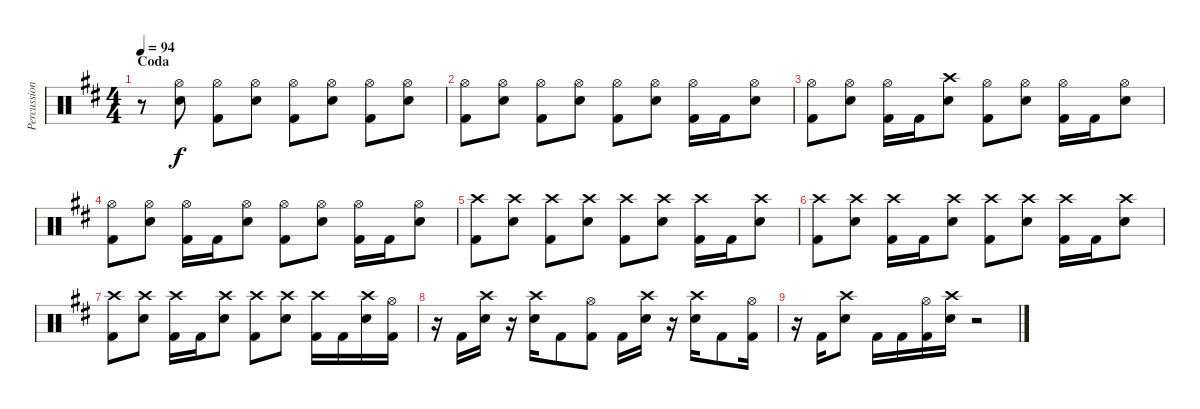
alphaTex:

\track ("Percussion" "Percussion") {instrument percussion}
\staff {score}
\articulation defaults
\ts (4 4)
\section ("" "Coda")
\tempo 94
\clef neutral
\ks bminor
r.8{dy f} ("Hi-Hat (open)" "Electric Snare (hit)").8 ("Hi-Hat (open)" "Kick (hit) 2").8 ("Hi-Hat (open)" "Electric Snare (hit)").8 ("Hi-Hat (open)" "Kick (hit) 2").8 ("Hi-Hat (open)" "Electric Snare (hit)").8 ("Hi-Hat (open)" "Kick (hit) 2").8 ("Hi-Hat (open)" "Electric Snare (hit)").8 |
("Hi-Hat (open)" "Kick (hit) 2").8 ("Hi-Hat (open)" "Electric Snare (hit)").8 ("Hi-Hat (open)" "Kick (hit) 2").8 ("Hi-Hat (open)" "Electric Snare (hit)").8 ("Hi-Hat (open)" "Kick (hit) 2").8 ("Hi-Hat (open)" "Electric Snare (hit)").8 ("Hi-Hat (open)" "Kick (hit) 2").16 "Kick (hit) 2".16 ("Hi-Hat (open)" "Electric Snare (hit)").8 |
("Hi-Hat (open)" "Kick (hit) 2").8 ("Hi-Hat (open)" "Electric Snare (hit)").8 ("Hi-Hat (open)" "Kick (hit) 2").16 "Kick (hit) 2".16 ("Crash high (hit)" "Electric Snare (hit)").8 ("Hi-Hat (open)" "Kick (hit) 2").8 ("Hi-Hat (open)" "Electric Snare (hit)").8 ("Hi-Hat (open)" "Kick (hit) 2").16 "Kick (hit) 2".16 ("Hi-Hat (open)" "Electric Snare (hit)").8 |
("Hi-Hat (open)" "Kick (hit) 2").8 ("Hi-Hat (open)" "Electric Snare (hit)").8 ("Hi-Hat (open)" "Kick (hit) 2").16 "Kick (hit) 2".16 ("Hi-Hat (open)" "Electric Snare (hit)").8 ("Hi-Hat (open)" "Kick (hit) 2").8 ("Hi-Hat (open)" "Electric Snare (hit)").8 ("Hi-Hat (open)" "Kick (hit) 2").16 "Kick (hit) 2".16 ("Hi-Hat (open)" "Electric Snare (hit)").8 |
("Crash high (hit)" "Kick (hit) 2").8 ("Crash high (hit)" "Electric Snare (hit)").8 ("Crash high (hit)" "Kick (hit) 2").8 ("Crash high (hit)" "Electric Snare (hit)").8 ("Crash high (hit)" "Kick (hit) 2").8 ("Crash high (hit)" "Electric Snare (hit)").8 ("Crash high (hit)" "Kick (hit) 2").16 "Kick (hit) 2".16 ("Crash high (hit)" "Electric Snare (hit)").8 |
("Crash high (hit)" "Kick (hit) 2").8 ("Crash high (hit)" "Electric Snare (hit)").8 ("Crash high (hit)" "Kick (hit) 2").16 "Kick (hit) 2".16 ("Crash high (hit)" "Electric Snare (hit)").8 ("Crash high (hit)" "Kick (hit) 2").8 ("Crash high (hit)" "Electric Snare (hit)").8 ("Crash high (hit)" "Kick (hit) 2").16 "Kick (hit) 2".16 ("Crash high (hit)" "Electric Snare (hit)").8 |
("Crash high (hit)" "Kick (hit) 2").8 ("Crash high (hit)" "Electric Snare (hit)").8 ("Crash high (hit)" "Kick (hit) 2").16 "Kick (hit) 2".16 ("Crash high (hit)" "Electric Snare (hit)").8 ("Crash high (hit)" "Kick (hit) 2").8 ("Crash high (hit)" "Electric Snare (hit)").8 ("Crash high (hit)" "Kick (hit) 2").16 "Kick (hit) 2".16 ("Crash high (hit)" "Electric Snare (hit)").16 ("Hi-Hat (open)" "Kick (hit) 2").16 |
r.16 "Kick (hit) 2".16 ("Crash high (hit)" "Electric Snare (hit)").16 r.16 ("Crash high (hit)" "Electric Snare (hit)").16 "Kick (hit) 2".8 ("Hi-Hat (open)" "Kick (hit) 2").8 "Kick (hit) 2".16 ("Crash high (hit)" "Electric Snare (hit)").16 r.16 ("Crash high (hit)" "Electric Snare (hit)").16 "Kick (hit) 2".8 ("Hi-Hat (open)" "Kick (hit) 2").16 |
r.16 "Kick (hit) 2".16 ("Crash high (hit)" "Electric Snare (hit)").8 "Kick (hit) 2".16 "Kick (hit) 2".16 ("Hi-Hat (open)" "Kick (hit) 2").16 ("Crash high (hit)" "Electric Snare (hit)").16 r.2
